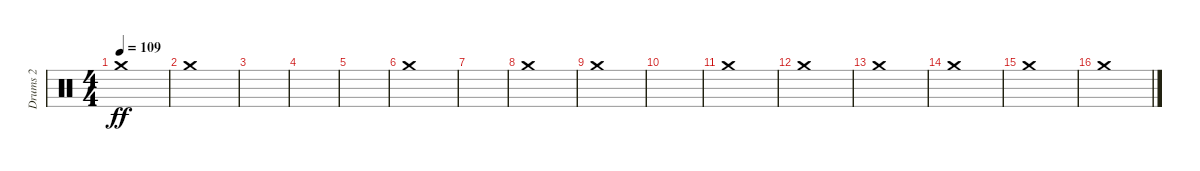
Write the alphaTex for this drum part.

\track ("Drums 2" "Drums 2") {instrument percussion}
\staff {score}
\articulation defaults
\ts (4 4)
\tempo 109
\clef neutral
\ks c "Crash medium (hit)".1{dy ff}
|
"Crash medium (hit)".1 |
|
|
|
"Crash medium (hit)".1 |
|
"Crash medium (hit)".1 |
"Crash medium (hit)".1 |
|
"Crash medium (hit)".1 |
"Crash medium (hit)".1 |
"Crash medium (hit)".1 |
"Crash medium (hit)".1 |
"Crash medium (hit)".1 |
"Crash medium (hit)".1
